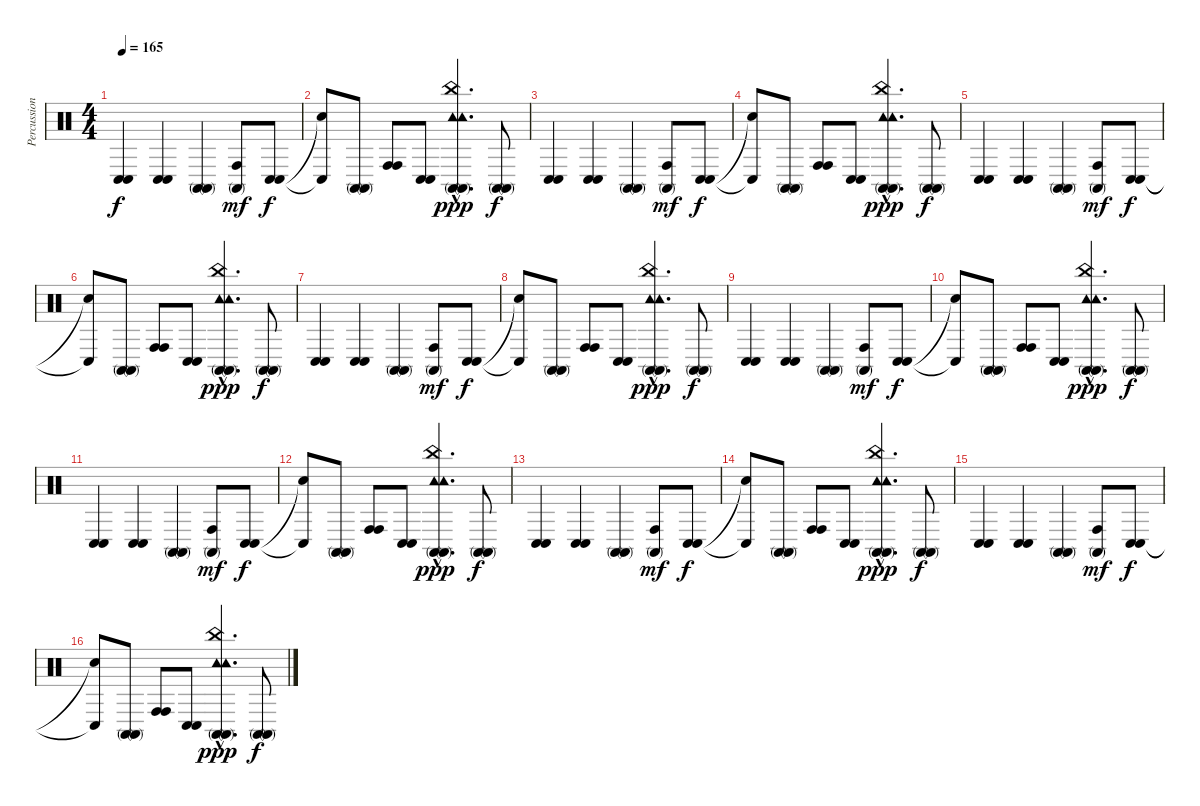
\track ("Percussion" "Percussion") {instrument percussion}
\staff {score}
\articulation defaults
\ts (4 4)
\tempo 165
\clef neutral
\ks c
("Conga low (hit)" "Conga low (hit)").4{dy f} ("Conga low (hit)" "Conga low (hit)").4 ("Conga high (mute)" "Conga high (mute)").4 ("Conga high (hit)" "Conga high (mute)").8{dy mf} ("Conga low (hit)" "Conga low (hit)").8{dy f} |
("Conga low (hit)"{t} "Snare (hit)"{t}).8 ("Conga high (mute)" "Conga high (mute)").8 ("Conga high (hit)" "Conga high (hit)").8 ("Conga low (hit)" "Conga low (hit)").8 ("Conga high (mute)"{hac} "Conga high (mute)"{hac} "Tambourine (hit)"{hac} "Tambourine (hit)"{hac} "China (hit)"{hac}).4{d dy ppp} ("Conga high (mute)" "Conga high (mute)").8{dy f} |
("Conga low (hit)" "Conga low (hit)").4 ("Conga low (hit)" "Conga low (hit)").4 ("Conga high (mute)" "Conga high (mute)").4 ("Conga high (hit)" "Conga high (mute)").8{dy mf} ("Conga low (hit)" "Conga low (hit)").8{dy f} |
("Conga low (hit)"{t} "Snare (hit)"{t}).8 ("Conga high (mute)" "Conga high (mute)").8 ("Conga high (hit)" "Conga high (hit)").8 ("Conga low (hit)" "Conga low (hit)").8 ("Conga high (mute)"{hac} "Conga high (mute)"{hac} "Tambourine (hit)"{hac} "Tambourine (hit)"{hac} "China (hit)"{hac}).4{d dy ppp} ("Conga high (mute)" "Conga high (mute)").8{dy f} |
("Conga low (hit)" "Conga low (hit)").4 ("Conga low (hit)" "Conga low (hit)").4 ("Conga high (mute)" "Conga high (mute)").4 ("Conga high (hit)" "Conga high (mute)").8{dy mf} ("Conga low (hit)" "Conga low (hit)").8{dy f} |
("Conga low (hit)"{t} "Snare (hit)"{t}).8 ("Conga high (mute)" "Conga high (mute)").8 ("Conga high (hit)" "Conga high (hit)").8 ("Conga low (hit)" "Conga low (hit)").8 ("Conga high (mute)"{hac} "Conga high (mute)"{hac} "Tambourine (hit)"{hac} "Tambourine (hit)"{hac} "China (hit)"{hac}).4{d dy ppp} ("Conga high (mute)" "Conga high (mute)").8{dy f} |
("Conga low (hit)" "Conga low (hit)").4 ("Conga low (hit)" "Conga low (hit)").4 ("Conga high (mute)" "Conga high (mute)").4 ("Conga high (hit)" "Conga high (mute)").8{dy mf} ("Conga low (hit)" "Conga low (hit)").8{dy f} |
("Conga low (hit)"{t} "Snare (hit)"{t}).8 ("Conga high (mute)" "Conga high (mute)").8 ("Conga high (hit)" "Conga high (hit)").8 ("Conga low (hit)" "Conga low (hit)").8 ("Conga high (mute)"{hac} "Conga high (mute)"{hac} "Tambourine (hit)"{hac} "Tambourine (hit)"{hac} "China (hit)"{hac}).4{d dy ppp} ("Conga high (mute)" "Conga high (mute)").8{dy f} |
("Conga low (hit)" "Conga low (hit)").4 ("Conga low (hit)" "Conga low (hit)").4 ("Conga high (mute)" "Conga high (mute)").4 ("Conga high (hit)" "Conga high (mute)").8{dy mf} ("Conga low (hit)" "Conga low (hit)").8{dy f} |
("Conga low (hit)"{t} "Snare (hit)"{t}).8 ("Conga high (mute)" "Conga high (mute)").8 ("Conga high (hit)" "Conga high (hit)").8 ("Conga low (hit)" "Conga low (hit)").8 ("Conga high (mute)"{hac} "Conga high (mute)"{hac} "Tambourine (hit)"{hac} "Tambourine (hit)"{hac} "China (hit)"{hac}).4{d dy ppp} ("Conga high (mute)" "Conga high (mute)").8{dy f} |
("Conga low (hit)" "Conga low (hit)").4 ("Conga low (hit)" "Conga low (hit)").4 ("Conga high (mute)" "Conga high (mute)").4 ("Conga high (hit)" "Conga high (mute)").8{dy mf} ("Conga low (hit)" "Conga low (hit)").8{dy f} |
("Conga low (hit)"{t} "Snare (hit)"{t}).8 ("Conga high (mute)" "Conga high (mute)").8 ("Conga high (hit)" "Conga high (hit)").8 ("Conga low (hit)" "Conga low (hit)").8 ("Conga high (mute)"{hac} "Conga high (mute)"{hac} "Tambourine (hit)"{hac} "Tambourine (hit)"{hac} "China (hit)"{hac}).4{d dy ppp} ("Conga high (mute)" "Conga high (mute)").8{dy f} |
("Conga low (hit)" "Conga low (hit)").4 ("Conga low (hit)" "Conga low (hit)").4 ("Conga high (mute)" "Conga high (mute)").4 ("Conga high (hit)" "Conga high (mute)").8{dy mf} ("Conga low (hit)" "Conga low (hit)").8{dy f} |
("Conga low (hit)"{t} "Snare (hit)"{t}).8 ("Conga high (mute)" "Conga high (mute)").8 ("Conga high (hit)" "Conga high (hit)").8 ("Conga low (hit)" "Conga low (hit)").8 ("Conga high (mute)"{hac} "Conga high (mute)"{hac} "Tambourine (hit)"{hac} "Tambourine (hit)"{hac} "China (hit)"{hac}).4{d dy ppp} ("Conga high (mute)" "Conga high (mute)").8{dy f} |
("Conga low (hit)" "Conga low (hit)").4 ("Conga low (hit)" "Conga low (hit)").4 ("Conga high (mute)" "Conga high (mute)").4 ("Conga high (hit)" "Conga high (mute)").8{dy mf} ("Conga low (hit)" "Conga low (hit)").8{dy f} |
("Conga low (hit)"{t} "Snare (hit)"{t}).8 ("Conga high (mute)" "Conga high (mute)").8 ("Conga high (hit)" "Conga high (hit)").8 ("Conga low (hit)" "Conga low (hit)").8 ("Conga high (mute)"{hac} "Conga high (mute)"{hac} "Tambourine (hit)"{hac} "Tambourine (hit)"{hac} "China (hit)"{hac}).4{d dy ppp} ("Conga high (mute)" "Conga high (mute)").8{dy f}
